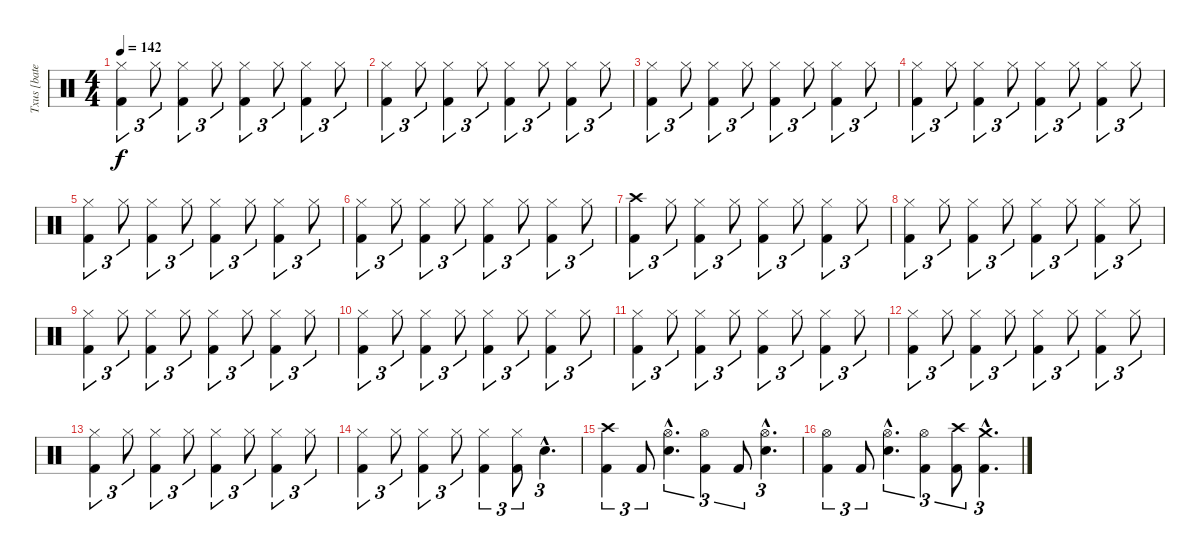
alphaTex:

\track ("Txus [bateria]" "Txus [bate") {instrument percussion}
\staff {score}
\articulation defaults
\ts (4 4)
\tempo 142
\clef neutral
\ks c
("Hi-Hat (closed)" "Kick (hit) 2").4{tu (3 2) dy f} "Hi-Hat (closed)".8{tu (3 2)} ("Hi-Hat (closed)" "Kick (hit) 2").4{tu (3 2)} "Hi-Hat (closed)".8{tu (3 2)} ("Hi-Hat (closed)" "Kick (hit) 2").4{tu (3 2)} "Hi-Hat (closed)".8{tu (3 2)} ("Hi-Hat (closed)" "Kick (hit) 2").4{tu (3 2)} "Hi-Hat (closed)".8{tu (3 2)} |
("Hi-Hat (closed)" "Kick (hit) 2").4{tu (3 2)} "Hi-Hat (closed)".8{tu (3 2)} ("Hi-Hat (closed)" "Kick (hit) 2").4{tu (3 2)} "Hi-Hat (closed)".8{tu (3 2)} ("Hi-Hat (closed)" "Kick (hit) 2").4{tu (3 2)} "Hi-Hat (closed)".8{tu (3 2)} ("Hi-Hat (closed)" "Kick (hit) 2").4{tu (3 2)} "Hi-Hat (closed)".8{tu (3 2)} |
("Hi-Hat (closed)" "Kick (hit) 2").4{tu (3 2)} "Hi-Hat (closed)".8{tu (3 2)} ("Hi-Hat (closed)" "Kick (hit) 2").4{tu (3 2)} "Hi-Hat (closed)".8{tu (3 2)} ("Hi-Hat (closed)" "Kick (hit) 2").4{tu (3 2)} "Hi-Hat (closed)".8{tu (3 2)} ("Hi-Hat (closed)" "Kick (hit) 2").4{tu (3 2)} "Hi-Hat (closed)".8{tu (3 2)} |
("Hi-Hat (closed)" "Kick (hit) 2").4{tu (3 2)} "Hi-Hat (closed)".8{tu (3 2)} ("Hi-Hat (closed)" "Kick (hit) 2").4{tu (3 2)} "Hi-Hat (closed)".8{tu (3 2)} ("Hi-Hat (closed)" "Kick (hit) 2").4{tu (3 2)} "Hi-Hat (closed)".8{tu (3 2)} ("Hi-Hat (closed)" "Kick (hit) 2").4{tu (3 2)} "Hi-Hat (closed)".8{tu (3 2)} |
("Hi-Hat (closed)" "Kick (hit) 2").4{tu (3 2)} "Hi-Hat (closed)".8{tu (3 2)} ("Hi-Hat (closed)" "Kick (hit) 2").4{tu (3 2)} "Hi-Hat (closed)".8{tu (3 2)} ("Hi-Hat (closed)" "Kick (hit) 2").4{tu (3 2)} "Hi-Hat (closed)".8{tu (3 2)} ("Hi-Hat (closed)" "Kick (hit) 2").4{tu (3 2)} "Hi-Hat (closed)".8{tu (3 2)} |
("Hi-Hat (closed)" "Kick (hit) 2").4{tu (3 2)} "Hi-Hat (closed)".8{tu (3 2)} ("Hi-Hat (closed)" "Kick (hit) 2").4{tu (3 2)} "Hi-Hat (closed)".8{tu (3 2)} ("Hi-Hat (closed)" "Kick (hit) 2").4{tu (3 2)} "Hi-Hat (closed)".8{tu (3 2)} ("Hi-Hat (closed)" "Kick (hit) 2").4{tu (3 2)} "Hi-Hat (closed)".8{tu (3 2)} |
("Crash high (hit)" "Kick (hit) 2").4{tu (3 2)} "Hi-Hat (closed)".8{tu (3 2)} ("Hi-Hat (closed)" "Kick (hit) 2").4{tu (3 2)} "Hi-Hat (closed)".8{tu (3 2)} ("Hi-Hat (closed)" "Kick (hit) 2").4{tu (3 2)} "Hi-Hat (closed)".8{tu (3 2)} ("Hi-Hat (closed)" "Kick (hit) 2").4{tu (3 2)} "Hi-Hat (closed)".8{tu (3 2)} |
("Hi-Hat (closed)" "Kick (hit) 2").4{tu (3 2)} "Hi-Hat (closed)".8{tu (3 2)} ("Hi-Hat (closed)" "Kick (hit) 2").4{tu (3 2)} "Hi-Hat (closed)".8{tu (3 2)} ("Hi-Hat (closed)" "Kick (hit) 2").4{tu (3 2)} "Hi-Hat (closed)".8{tu (3 2)} ("Hi-Hat (closed)" "Kick (hit) 2").4{tu (3 2)} "Hi-Hat (closed)".8{tu (3 2)} |
("Hi-Hat (closed)" "Kick (hit) 2").4{tu (3 2)} "Hi-Hat (closed)".8{tu (3 2)} ("Hi-Hat (closed)" "Kick (hit) 2").4{tu (3 2)} "Hi-Hat (closed)".8{tu (3 2)} ("Hi-Hat (closed)" "Kick (hit) 2").4{tu (3 2)} "Hi-Hat (closed)".8{tu (3 2)} ("Hi-Hat (closed)" "Kick (hit) 2").4{tu (3 2)} "Hi-Hat (closed)".8{tu (3 2)} |
("Hi-Hat (closed)" "Kick (hit) 2").4{tu (3 2)} "Hi-Hat (closed)".8{tu (3 2)} ("Hi-Hat (closed)" "Kick (hit) 2").4{tu (3 2)} "Hi-Hat (closed)".8{tu (3 2)} ("Hi-Hat (closed)" "Kick (hit) 2").4{tu (3 2)} "Hi-Hat (closed)".8{tu (3 2)} ("Hi-Hat (closed)" "Kick (hit) 2").4{tu (3 2)} "Hi-Hat (closed)".8{tu (3 2)} |
("Hi-Hat (closed)" "Kick (hit) 2").4{tu (3 2)} "Hi-Hat (closed)".8{tu (3 2)} ("Hi-Hat (closed)" "Kick (hit) 2").4{tu (3 2)} "Hi-Hat (closed)".8{tu (3 2)} ("Hi-Hat (closed)" "Kick (hit) 2").4{tu (3 2)} "Hi-Hat (closed)".8{tu (3 2)} ("Hi-Hat (closed)" "Kick (hit) 2").4{tu (3 2)} "Hi-Hat (closed)".8{tu (3 2)} |
("Hi-Hat (closed)" "Kick (hit) 2").4{tu (3 2)} "Hi-Hat (closed)".8{tu (3 2)} ("Hi-Hat (closed)" "Kick (hit) 2").4{tu (3 2)} "Hi-Hat (closed)".8{tu (3 2)} ("Hi-Hat (closed)" "Kick (hit) 2").4{tu (3 2)} "Hi-Hat (closed)".8{tu (3 2)} ("Hi-Hat (closed)" "Kick (hit) 2").4{tu (3 2)} "Hi-Hat (closed)".8{tu (3 2)} |
("Hi-Hat (closed)" "Kick (hit) 2").4{tu (3 2)} "Hi-Hat (closed)".8{tu (3 2)} ("Hi-Hat (closed)" "Kick (hit) 2").4{tu (3 2)} "Hi-Hat (closed)".8{tu (3 2)} ("Hi-Hat (closed)" "Kick (hit) 2").4{tu (3 2)} "Hi-Hat (closed)".8{tu (3 2)} ("Hi-Hat (closed)" "Kick (hit) 2").4{tu (3 2)} "Hi-Hat (closed)".8{tu (3 2)} |
("Hi-Hat (closed)" "Kick (hit) 2").4{tu (3 2)} "Hi-Hat (closed)".8{tu (3 2)} ("Hi-Hat (closed)" "Kick (hit) 2").4{tu (3 2)} "Hi-Hat (closed)".8{tu (3 2)} ("Hi-Hat (closed)" "Kick (hit) 2").4{tu (3 2)} ("Hi-Hat (closed)" "Kick (hit) 2").8{tu (3 2)} "Snare (hit) 2"{hac}.4{d tu (3 2)} |
("Crash high (hit)" "Kick (hit) 2").4{tu (3 2)} "Kick (hit) 2".8{tu (3 2)} ("Hi-Hat (open)"{hac} "Snare (hit) 2"{hac}).4{d tu (3 2)} ("Hi-Hat (open)" "Kick (hit) 2").4{tu (3 2)} "Kick (hit) 2".8{tu (3 2)} ("Hi-Hat (open)"{hac} "Snare (hit) 2"{hac}).4{d tu (3 2)} |
("Hi-Hat (open)" "Kick (hit) 2").4{tu (3 2)} "Kick (hit) 2".8{tu (3 2)} ("Hi-Hat (open)"{hac} "Snare (hit) 2"{hac}).4{d tu (3 2)} ("Hi-Hat (open)" "Kick (hit) 2").4{tu (3 2)} ("Crash high (hit)" "Kick (hit) 2").8{tu (3 2)} ("Crash medium (hit)"{hac} "Kick (hit) 2"{hac}).4{d tu (3 2)}
